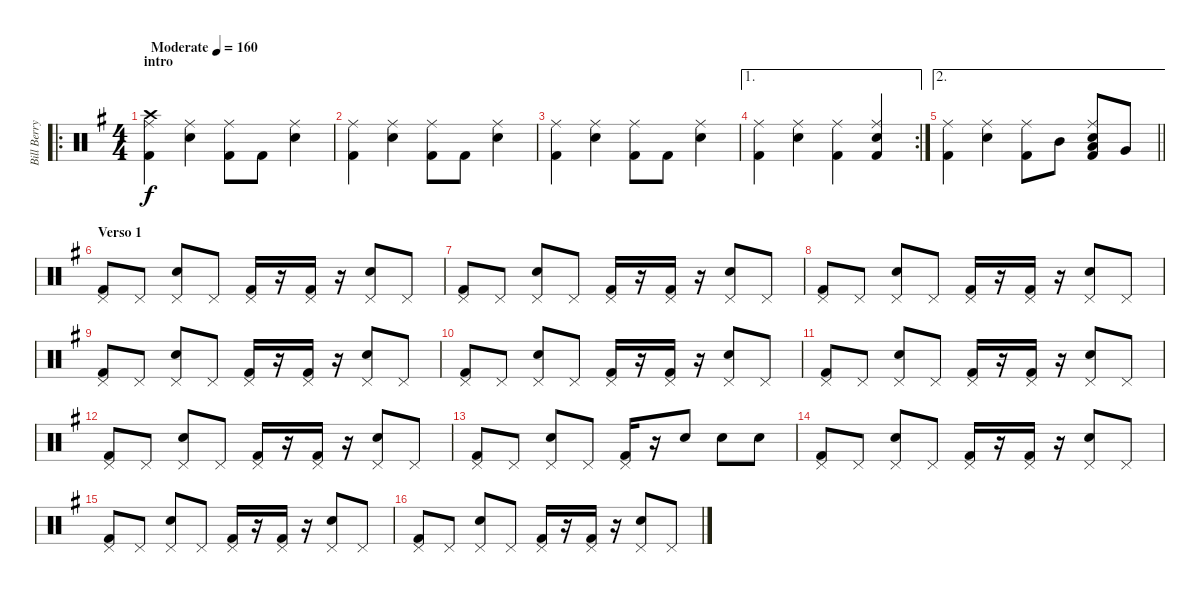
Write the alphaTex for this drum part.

\track ("Bill Berry" "Bill Berry") {instrument percussion}
\staff {score}
\articulation defaults
\ro
\ts (4 4)
\section ("" "intro")
\tempo (160 "Moderate")
\clef neutral
\ks g
("Kick (hit) 2" "Crash high (hit)" "Ride (middle)").4{dy f} ("Snare (hit) 2" "Ride (middle)").4 ("Kick (hit) 2" "Ride (middle)").8 "Kick (hit) 2".8 ("Snare (hit) 2" "Ride (middle)").4 |
("Kick (hit) 2" "Ride (middle)").4 ("Snare (hit) 2" "Ride (middle)").4 ("Kick (hit) 2" "Ride (middle)").8 "Kick (hit) 2".8 ("Snare (hit) 2" "Ride (middle)").4 |
("Kick (hit) 2" "Ride (middle)").4 ("Snare (hit) 2" "Ride (middle)").4 ("Kick (hit) 2" "Ride (middle)").8 "Kick (hit) 2".8 ("Snare (hit) 2" "Ride (middle)").4 |
\ae 1
\rc 2
("Kick (hit) 2" "Ride (middle)").4 ("Snare (hit) 2" "Ride (middle)").4 ("Kick (hit) 2" "Ride (middle)").4 ("Snare (hit) 2" "Ride (middle)" "Kick (hit) 2").4 |
\ae 2
\barLineRight lightlight
("Kick (hit) 2" "Ride (middle)").4 ("Snare (hit) 2" "Ride (middle)").4 ("Kick (hit) 2" "Ride (middle)").8 "Mid Tom (hit)".8 ("Snare (hit) 2" "Ride (middle)" "Kick (hit) 2" "Low Tom (hit)").8 "Very Low Tom (hit)".8 |
\section ("" "Verso 1")
("Kick (hit) 2" "Pedal Hi-Hat (hit)").8 "Pedal Hi-Hat (hit)".8 ("Snare (hit) 2" "Pedal Hi-Hat (hit)").8 "Pedal Hi-Hat (hit)".8 ("Kick (hit) 2" "Pedal Hi-Hat (hit)").16 r.16 ("Kick (hit) 2" "Pedal Hi-Hat (hit)").16 r.16 ("Snare (hit) 2" "Pedal Hi-Hat (hit)").8 "Pedal Hi-Hat (hit)".8 |
("Kick (hit) 2" "Pedal Hi-Hat (hit)").8 "Pedal Hi-Hat (hit)".8 ("Snare (hit) 2" "Pedal Hi-Hat (hit)").8 "Pedal Hi-Hat (hit)".8 ("Kick (hit) 2" "Pedal Hi-Hat (hit)").16 r.16 ("Kick (hit) 2" "Pedal Hi-Hat (hit)").16 r.16 ("Snare (hit) 2" "Pedal Hi-Hat (hit)").8 "Pedal Hi-Hat (hit)".8 |
("Kick (hit) 2" "Pedal Hi-Hat (hit)").8 "Pedal Hi-Hat (hit)".8 ("Snare (hit) 2" "Pedal Hi-Hat (hit)").8 "Pedal Hi-Hat (hit)".8 ("Kick (hit) 2" "Pedal Hi-Hat (hit)").16 r.16 ("Kick (hit) 2" "Pedal Hi-Hat (hit)").16 r.16 ("Snare (hit) 2" "Pedal Hi-Hat (hit)").8 "Pedal Hi-Hat (hit)".8 |
("Kick (hit) 2" "Pedal Hi-Hat (hit)").8 "Pedal Hi-Hat (hit)".8 ("Snare (hit) 2" "Pedal Hi-Hat (hit)").8 "Pedal Hi-Hat (hit)".8 ("Kick (hit) 2" "Pedal Hi-Hat (hit)").16 r.16 ("Kick (hit) 2" "Pedal Hi-Hat (hit)").16 r.16 ("Snare (hit) 2" "Pedal Hi-Hat (hit)").8 "Pedal Hi-Hat (hit)".8 |
("Kick (hit) 2" "Pedal Hi-Hat (hit)").8 "Pedal Hi-Hat (hit)".8 ("Snare (hit) 2" "Pedal Hi-Hat (hit)").8 "Pedal Hi-Hat (hit)".8 ("Kick (hit) 2" "Pedal Hi-Hat (hit)").16 r.16 ("Kick (hit) 2" "Pedal Hi-Hat (hit)").16 r.16 ("Snare (hit) 2" "Pedal Hi-Hat (hit)").8 "Pedal Hi-Hat (hit)".8 |
("Kick (hit) 2" "Pedal Hi-Hat (hit)").8 "Pedal Hi-Hat (hit)".8 ("Snare (hit) 2" "Pedal Hi-Hat (hit)").8 "Pedal Hi-Hat (hit)".8 ("Kick (hit) 2" "Pedal Hi-Hat (hit)").16 r.16 ("Kick (hit) 2" "Pedal Hi-Hat (hit)").16 r.16 ("Snare (hit) 2" "Pedal Hi-Hat (hit)").8 "Pedal Hi-Hat (hit)".8 |
("Kick (hit) 2" "Pedal Hi-Hat (hit)").8 "Pedal Hi-Hat (hit)".8 ("Snare (hit) 2" "Pedal Hi-Hat (hit)").8 "Pedal Hi-Hat (hit)".8 ("Kick (hit) 2" "Pedal Hi-Hat (hit)").16 r.16 ("Kick (hit) 2" "Pedal Hi-Hat (hit)").16 r.16 ("Snare (hit) 2" "Pedal Hi-Hat (hit)").8 "Pedal Hi-Hat (hit)".8 |
("Kick (hit) 2" "Pedal Hi-Hat (hit)").8 "Pedal Hi-Hat (hit)".8 ("Snare (hit) 2" "Pedal Hi-Hat (hit)").8 "Pedal Hi-Hat (hit)".8 ("Kick (hit) 2" "Pedal Hi-Hat (hit)").16 r.16 "Snare (hit) 2".8 "Snare (hit) 2".8 "Snare (hit) 2".8 |
("Kick (hit) 2" "Pedal Hi-Hat (hit)").8 "Pedal Hi-Hat (hit)".8 ("Snare (hit) 2" "Pedal Hi-Hat (hit)").8 "Pedal Hi-Hat (hit)".8 ("Kick (hit) 2" "Pedal Hi-Hat (hit)").16 r.16 ("Kick (hit) 2" "Pedal Hi-Hat (hit)").16 r.16 ("Snare (hit) 2" "Pedal Hi-Hat (hit)").8 "Pedal Hi-Hat (hit)".8 |
("Kick (hit) 2" "Pedal Hi-Hat (hit)").8 "Pedal Hi-Hat (hit)".8 ("Snare (hit) 2" "Pedal Hi-Hat (hit)").8 "Pedal Hi-Hat (hit)".8 ("Kick (hit) 2" "Pedal Hi-Hat (hit)").16 r.16 ("Kick (hit) 2" "Pedal Hi-Hat (hit)").16 r.16 ("Snare (hit) 2" "Pedal Hi-Hat (hit)").8 "Pedal Hi-Hat (hit)".8 |
("Kick (hit) 2" "Pedal Hi-Hat (hit)").8 "Pedal Hi-Hat (hit)".8 ("Snare (hit) 2" "Pedal Hi-Hat (hit)").8 "Pedal Hi-Hat (hit)".8 ("Kick (hit) 2" "Pedal Hi-Hat (hit)").16 r.16 ("Kick (hit) 2" "Pedal Hi-Hat (hit)").16 r.16 ("Snare (hit) 2" "Pedal Hi-Hat (hit)").8 "Pedal Hi-Hat (hit)".8
